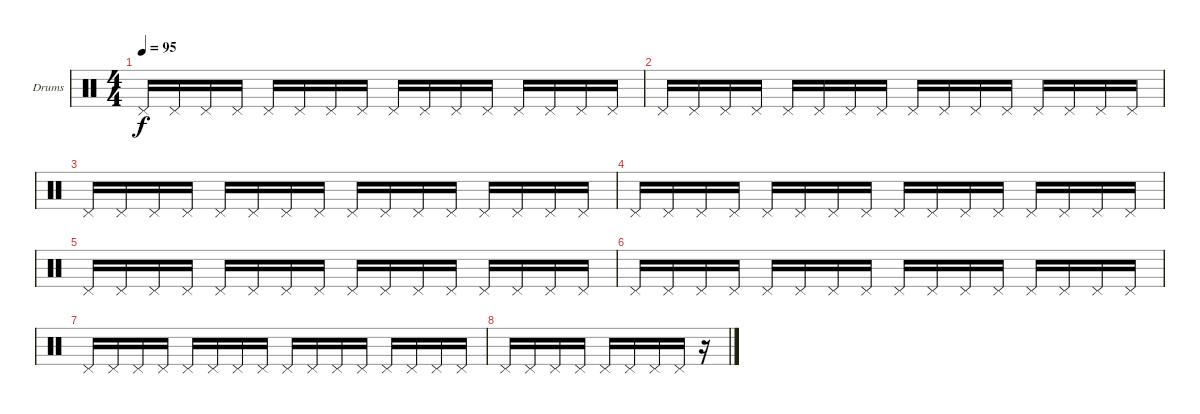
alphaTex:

\defaultSystemsLayout 4
\bracketExtendMode groupsimilarinstruments
\firstSystemTrackNameOrientation horizontal
\otherSystemsTrackNameOrientation horizontal
\track ("Drumkit" "Drums") {instrument percussion}
\staff {score}
\articulation defaults
\ts (4 4)
\tempo 95
\clef neutral
\ks c "Pedal Hi-Hat (hit)".16{dy f} "Pedal Hi-Hat (hit)".16 "Pedal Hi-Hat (hit)".16 "Pedal Hi-Hat (hit)".16 "Pedal Hi-Hat (hit)".16 "Pedal Hi-Hat (hit)".16 "Pedal Hi-Hat (hit)".16 "Pedal Hi-Hat (hit)".16 "Pedal Hi-Hat (hit)".16 "Pedal Hi-Hat (hit)".16 "Pedal Hi-Hat (hit)".16 "Pedal Hi-Hat (hit)".16 "Pedal Hi-Hat (hit)".16 "Pedal Hi-Hat (hit)".16 "Pedal Hi-Hat (hit)".16 "Pedal Hi-Hat (hit)".16
|
"Pedal Hi-Hat (hit)".16 "Pedal Hi-Hat (hit)".16 "Pedal Hi-Hat (hit)".16 "Pedal Hi-Hat (hit)".16 "Pedal Hi-Hat (hit)".16 "Pedal Hi-Hat (hit)".16 "Pedal Hi-Hat (hit)".16 "Pedal Hi-Hat (hit)".16 "Pedal Hi-Hat (hit)".16 "Pedal Hi-Hat (hit)".16 "Pedal Hi-Hat (hit)".16 "Pedal Hi-Hat (hit)".16 "Pedal Hi-Hat (hit)".16 "Pedal Hi-Hat (hit)".16 "Pedal Hi-Hat (hit)".16 "Pedal Hi-Hat (hit)".16 |
"Pedal Hi-Hat (hit)".16 "Pedal Hi-Hat (hit)".16 "Pedal Hi-Hat (hit)".16 "Pedal Hi-Hat (hit)".16 "Pedal Hi-Hat (hit)".16 "Pedal Hi-Hat (hit)".16 "Pedal Hi-Hat (hit)".16 "Pedal Hi-Hat (hit)".16 "Pedal Hi-Hat (hit)".16 "Pedal Hi-Hat (hit)".16 "Pedal Hi-Hat (hit)".16 "Pedal Hi-Hat (hit)".16 "Pedal Hi-Hat (hit)".16 "Pedal Hi-Hat (hit)".16 "Pedal Hi-Hat (hit)".16 "Pedal Hi-Hat (hit)".16 |
"Pedal Hi-Hat (hit)".16 "Pedal Hi-Hat (hit)".16 "Pedal Hi-Hat (hit)".16 "Pedal Hi-Hat (hit)".16 "Pedal Hi-Hat (hit)".16 "Pedal Hi-Hat (hit)".16 "Pedal Hi-Hat (hit)".16 "Pedal Hi-Hat (hit)".16 "Pedal Hi-Hat (hit)".16 "Pedal Hi-Hat (hit)".16 "Pedal Hi-Hat (hit)".16 "Pedal Hi-Hat (hit)".16 "Pedal Hi-Hat (hit)".16 "Pedal Hi-Hat (hit)".16 "Pedal Hi-Hat (hit)".16 "Pedal Hi-Hat (hit)".16 |
"Pedal Hi-Hat (hit)".16 "Pedal Hi-Hat (hit)".16 "Pedal Hi-Hat (hit)".16 "Pedal Hi-Hat (hit)".16 "Pedal Hi-Hat (hit)".16 "Pedal Hi-Hat (hit)".16 "Pedal Hi-Hat (hit)".16 "Pedal Hi-Hat (hit)".16 "Pedal Hi-Hat (hit)".16 "Pedal Hi-Hat (hit)".16 "Pedal Hi-Hat (hit)".16 "Pedal Hi-Hat (hit)".16 "Pedal Hi-Hat (hit)".16 "Pedal Hi-Hat (hit)".16 "Pedal Hi-Hat (hit)".16 "Pedal Hi-Hat (hit)".16 |
"Pedal Hi-Hat (hit)".16 "Pedal Hi-Hat (hit)".16 "Pedal Hi-Hat (hit)".16 "Pedal Hi-Hat (hit)".16 "Pedal Hi-Hat (hit)".16 "Pedal Hi-Hat (hit)".16 "Pedal Hi-Hat (hit)".16 "Pedal Hi-Hat (hit)".16 "Pedal Hi-Hat (hit)".16 "Pedal Hi-Hat (hit)".16 "Pedal Hi-Hat (hit)".16 "Pedal Hi-Hat (hit)".16 "Pedal Hi-Hat (hit)".16 "Pedal Hi-Hat (hit)".16 "Pedal Hi-Hat (hit)".16 "Pedal Hi-Hat (hit)".16 |
"Pedal Hi-Hat (hit)".16 "Pedal Hi-Hat (hit)".16 "Pedal Hi-Hat (hit)".16 "Pedal Hi-Hat (hit)".16 "Pedal Hi-Hat (hit)".16 "Pedal Hi-Hat (hit)".16 "Pedal Hi-Hat (hit)".16 "Pedal Hi-Hat (hit)".16 "Pedal Hi-Hat (hit)".16 "Pedal Hi-Hat (hit)".16 "Pedal Hi-Hat (hit)".16 "Pedal Hi-Hat (hit)".16 "Pedal Hi-Hat (hit)".16 "Pedal Hi-Hat (hit)".16 "Pedal Hi-Hat (hit)".16 "Pedal Hi-Hat (hit)".16 |
"Pedal Hi-Hat (hit)".16 "Pedal Hi-Hat (hit)".16 "Pedal Hi-Hat (hit)".16 "Pedal Hi-Hat (hit)".16 "Pedal Hi-Hat (hit)".16 "Pedal Hi-Hat (hit)".16 "Pedal Hi-Hat (hit)".16 "Pedal Hi-Hat (hit)".16 r.16
